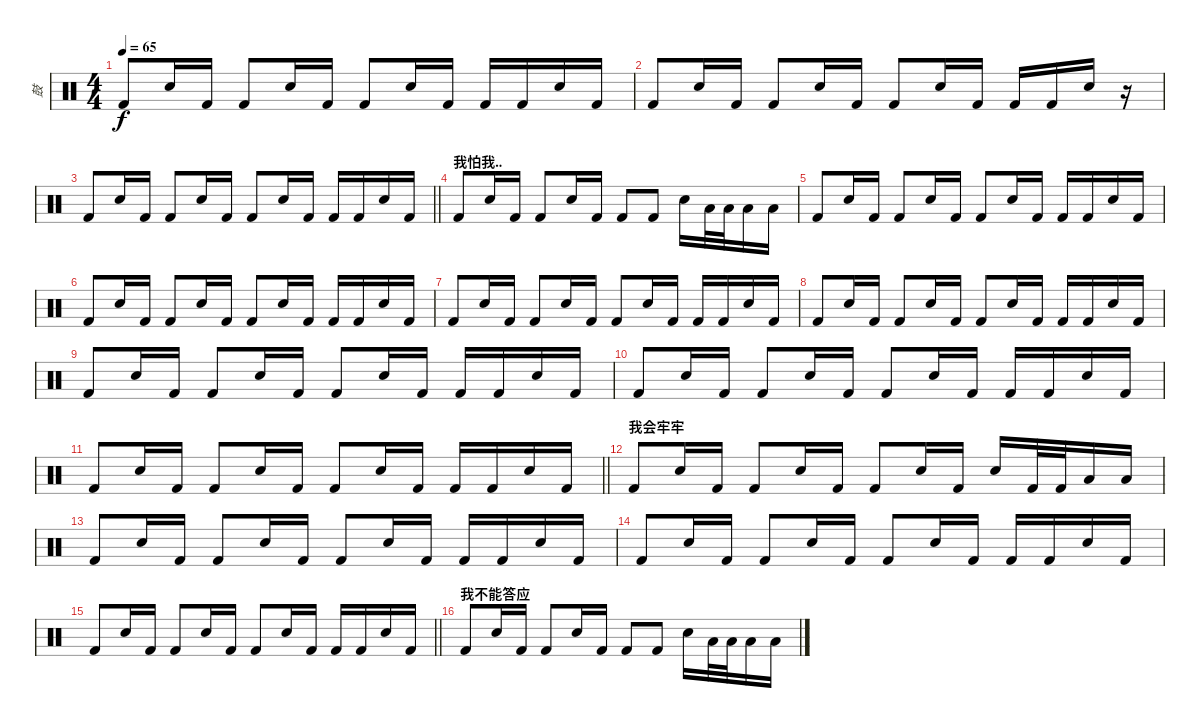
\track ("鼓" "鼓") {instrument percussion}
\staff {score}
\articulation defaults
\ts (4 4)
\tempo 65
\clef neutral
\ks c "Kick (hit) 2".8{dy f} "Snare (hit) 2".16 "Kick (hit) 2".16 "Kick (hit) 2".8 "Snare (hit) 2".16 "Kick (hit) 2".16 "Kick (hit) 2".8 "Snare (hit) 2".16 "Kick (hit) 2".16 "Kick (hit) 2".16 "Kick (hit) 2".16 "Snare (hit) 2".16 "Kick (hit) 2".16
|
"Kick (hit) 2".8 "Snare (hit) 2".16 "Kick (hit) 2".16 "Kick (hit) 2".8 "Snare (hit) 2".16 "Kick (hit) 2".16 "Kick (hit) 2".8 "Snare (hit) 2".16 "Kick (hit) 2".16 "Kick (hit) 2".16 "Kick (hit) 2".16 "Snare (hit) 2".16 r.16 |
\barLineRight lightlight "Kick (hit) 2".8 "Snare (hit) 2".16 "Kick (hit) 2".16 "Kick (hit) 2".8 "Snare (hit) 2".16 "Kick (hit) 2".16 "Kick (hit) 2".8 "Snare (hit) 2".16 "Kick (hit) 2".16 "Kick (hit) 2".16 "Kick (hit) 2".16 "Snare (hit) 2".16 "Kick (hit) 2".16
|
\section ("" "我怕我..")
"Kick (hit) 2".8 "Snare (hit) 2".16 "Kick (hit) 2".16 "Kick (hit) 2".8 "Snare (hit) 2".16 "Kick (hit) 2".16 "Kick (hit) 2".8 "Kick (hit) 2".8 "Snare (hit) 2".16 "Low Tom (hit)".32 "Low Tom (hit)".32 "Low Floor Tom (hit)".16 "Low Floor Tom (hit)".16 |
"Kick (hit) 2".8 "Snare (hit) 2".16 "Kick (hit) 2".16 "Kick (hit) 2".8 "Snare (hit) 2".16 "Kick (hit) 2".16 "Kick (hit) 2".8 "Snare (hit) 2".16 "Kick (hit) 2".16 "Kick (hit) 2".16 "Kick (hit) 2".16 "Snare (hit) 2".16 "Kick (hit) 2".16 |
"Kick (hit) 2".8 "Snare (hit) 2".16 "Kick (hit) 2".16 "Kick (hit) 2".8 "Snare (hit) 2".16 "Kick (hit) 2".16 "Kick (hit) 2".8 "Snare (hit) 2".16 "Kick (hit) 2".16 "Kick (hit) 2".16 "Kick (hit) 2".16 "Snare (hit) 2".16 "Kick (hit) 2".16 |
"Kick (hit) 2".8 "Snare (hit) 2".16 "Kick (hit) 2".16 "Kick (hit) 2".8 "Snare (hit) 2".16 "Kick (hit) 2".16 "Kick (hit) 2".8 "Snare (hit) 2".16 "Kick (hit) 2".16 "Kick (hit) 2".16 "Kick (hit) 2".16 "Snare (hit) 2".16 "Kick (hit) 2".16 |
"Kick (hit) 2".8 "Snare (hit) 2".16 "Kick (hit) 2".16 "Kick (hit) 2".8 "Snare (hit) 2".16 "Kick (hit) 2".16 "Kick (hit) 2".8 "Snare (hit) 2".16 "Kick (hit) 2".16 "Kick (hit) 2".16 "Kick (hit) 2".16 "Snare (hit) 2".16 "Kick (hit) 2".16 |
"Kick (hit) 2".8 "Snare (hit) 2".16 "Kick (hit) 2".16 "Kick (hit) 2".8 "Snare (hit) 2".16 "Kick (hit) 2".16 "Kick (hit) 2".8 "Snare (hit) 2".16 "Kick (hit) 2".16 "Kick (hit) 2".16 "Kick (hit) 2".16 "Snare (hit) 2".16 "Kick (hit) 2".16 |
"Kick (hit) 2".8 "Snare (hit) 2".16 "Kick (hit) 2".16 "Kick (hit) 2".8 "Snare (hit) 2".16 "Kick (hit) 2".16 "Kick (hit) 2".8 "Snare (hit) 2".16 "Kick (hit) 2".16 "Kick (hit) 2".16 "Kick (hit) 2".16 "Snare (hit) 2".16 "Kick (hit) 2".16 |
\barLineRight lightlight "Kick (hit) 2".8 "Snare (hit) 2".16 "Kick (hit) 2".16 "Kick (hit) 2".8 "Snare (hit) 2".16 "Kick (hit) 2".16 "Kick (hit) 2".8 "Snare (hit) 2".16 "Kick (hit) 2".16 "Kick (hit) 2".16 "Kick (hit) 2".16 "Snare (hit) 2".16 "Kick (hit) 2".16
|
\section ("" "我会牢牢")
"Kick (hit) 2".8 "Snare (hit) 2".16 "Kick (hit) 2".16 "Kick (hit) 2".8 "Snare (hit) 2".16 "Kick (hit) 2".16 "Kick (hit) 2".8 "Snare (hit) 2".16 "Kick (hit) 2".16 "Snare (hit) 2".16 "Kick (hit) 2".32 "Kick (hit) 2".32 "Low Tom (hit)".16 "Low Floor Tom (hit)".16 |
"Kick (hit) 2".8 "Snare (hit) 2".16 "Kick (hit) 2".16 "Kick (hit) 2".8 "Snare (hit) 2".16 "Kick (hit) 2".16 "Kick (hit) 2".8 "Snare (hit) 2".16 "Kick (hit) 2".16 "Kick (hit) 2".16 "Kick (hit) 2".16 "Snare (hit) 2".16 "Kick (hit) 2".16 |
"Kick (hit) 2".8 "Snare (hit) 2".16 "Kick (hit) 2".16 "Kick (hit) 2".8 "Snare (hit) 2".16 "Kick (hit) 2".16 "Kick (hit) 2".8 "Snare (hit) 2".16 "Kick (hit) 2".16 "Kick (hit) 2".16 "Kick (hit) 2".16 "Snare (hit) 2".16 "Kick (hit) 2".16 |
\barLineRight lightlight "Kick (hit) 2".8 "Snare (hit) 2".16 "Kick (hit) 2".16 "Kick (hit) 2".8 "Snare (hit) 2".16 "Kick (hit) 2".16 "Kick (hit) 2".8 "Snare (hit) 2".16 "Kick (hit) 2".16 "Kick (hit) 2".16 "Kick (hit) 2".16 "Snare (hit) 2".16 "Kick (hit) 2".16
|
\section ("" "我不能答应")
"Kick (hit) 2".8 "Snare (hit) 2".16 "Kick (hit) 2".16 "Kick (hit) 2".8 "Snare (hit) 2".16 "Kick (hit) 2".16 "Kick (hit) 2".8 "Kick (hit) 2".8 "Snare (hit) 2".16 "Low Tom (hit)".32 "Low Tom (hit)".32 "Low Floor Tom (hit)".16 "Low Floor Tom (hit)".16
